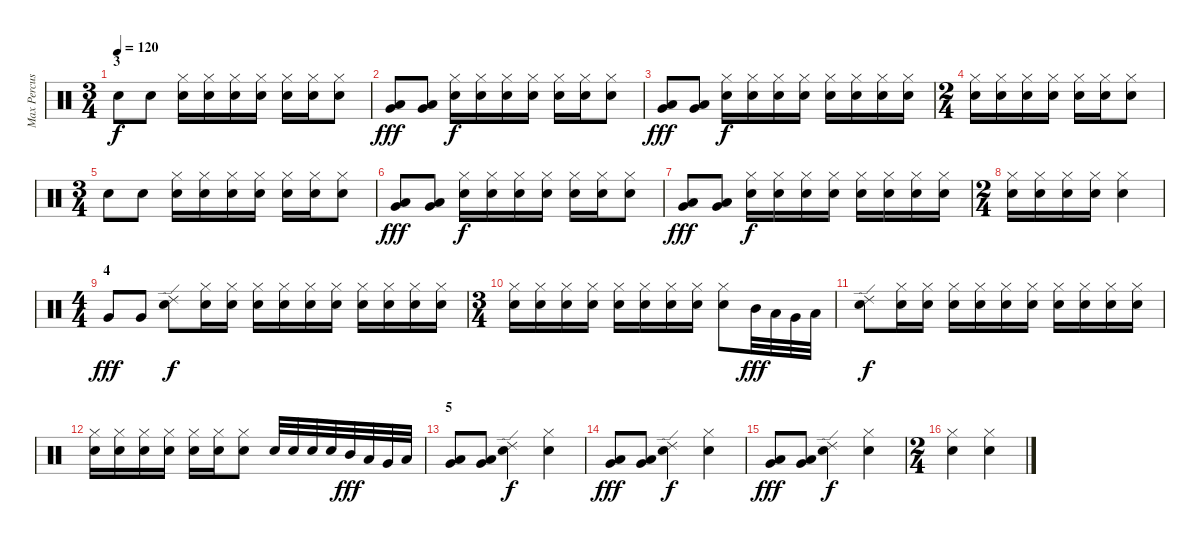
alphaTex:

\track ("Max Percussion" "Max Percus") {instrument percussion}
\staff {score}
\articulation defaults
\ts (3 4)
\section ("" "3")
\tempo 120
\clef neutral
\ks c "Snare (hit) 2".8{dy f} "Snare (hit) 2".8
("Hi-Hat (closed)" "Snare (hit) 2").16 ("Hi-Hat (closed)" "Snare (hit) 2").16 ("Hi-Hat (closed)" "Snare (hit) 2").16 ("Hi-Hat (closed)" "Snare (hit) 2").16 ("Hi-Hat (closed)" "Snare (hit) 2").16 ("Hi-Hat (closed)" "Snare (hit) 2").16 ("Hi-Hat (closed)" "Snare (hit) 2").8 |
("Low Tom (hit)" "Very Low Tom (hit)").8{dy fff} ("Low Tom (hit)" "Very Low Tom (hit)").8 ("Hi-Hat (closed)" "Snare (hit) 2").16{dy f} ("Hi-Hat (closed)" "Snare (hit) 2").16 ("Hi-Hat (closed)" "Snare (hit) 2").16 ("Hi-Hat (closed)" "Snare (hit) 2").16 ("Hi-Hat (closed)" "Snare (hit) 2").16 ("Hi-Hat (closed)" "Snare (hit) 2").16 ("Hi-Hat (closed)" "Snare (hit) 2").8 |
("Very Low Tom (hit)" "Low Floor Tom (hit)").8{dy fff} ("Very Low Tom (hit)" "Low Floor Tom (hit)").8 ("Hi-Hat (closed)" "Snare (hit) 2").16{dy f} ("Hi-Hat (closed)" "Snare (hit) 2").16 ("Hi-Hat (closed)" "Snare (hit) 2").16 ("Hi-Hat (closed)" "Snare (hit) 2").16 ("Hi-Hat (closed)" "Snare (hit) 2").16 ("Hi-Hat (closed)" "Snare (hit) 2").16 ("Hi-Hat (closed)" "Snare (hit) 2").16 ("Hi-Hat (closed)" "Snare (hit) 2").16 |
\ts (2 4)
("Hi-Hat (closed)" "Snare (hit) 2").16 ("Hi-Hat (closed)" "Snare (hit) 2").16 ("Hi-Hat (closed)" "Snare (hit) 2").16 ("Hi-Hat (closed)" "Snare (hit) 2").16 ("Hi-Hat (closed)" "Snare (hit) 2").16 ("Hi-Hat (closed)" "Snare (hit) 2").16 ("Hi-Hat (closed)" "Snare (hit) 2").8 |
\ts (3 4)
"Snare (hit) 2".8 "Snare (hit) 2".8 ("Hi-Hat (closed)" "Snare (hit) 2").16 ("Hi-Hat (closed)" "Snare (hit) 2").16 ("Hi-Hat (closed)" "Snare (hit) 2").16 ("Hi-Hat (closed)" "Snare (hit) 2").16 ("Hi-Hat (closed)" "Snare (hit) 2").16 ("Hi-Hat (closed)" "Snare (hit) 2").16 ("Hi-Hat (closed)" "Snare (hit) 2").8 |
("Low Tom (hit)" "Very Low Tom (hit)").8{dy fff} ("Low Tom (hit)" "Very Low Tom (hit)").8 ("Hi-Hat (closed)" "Snare (hit) 2").16{dy f} ("Hi-Hat (closed)" "Snare (hit) 2").16 ("Hi-Hat (closed)" "Snare (hit) 2").16 ("Hi-Hat (closed)" "Snare (hit) 2").16 ("Hi-Hat (closed)" "Snare (hit) 2").16 ("Hi-Hat (closed)" "Snare (hit) 2").16 ("Hi-Hat (closed)" "Snare (hit) 2").8 |
("Very Low Tom (hit)" "Low Floor Tom (hit)").8{dy fff} ("Very Low Tom (hit)" "Low Floor Tom (hit)").8 ("Hi-Hat (closed)" "Snare (hit) 2").16{dy f} ("Hi-Hat (closed)" "Snare (hit) 2").16 ("Hi-Hat (closed)" "Snare (hit) 2").16 ("Hi-Hat (closed)" "Snare (hit) 2").16 ("Hi-Hat (closed)" "Snare (hit) 2").16 ("Hi-Hat (closed)" "Snare (hit) 2").16 ("Hi-Hat (closed)" "Snare (hit) 2").16 ("Hi-Hat (closed)" "Snare (hit) 2").16 |
\ts (2 4)
("Hi-Hat (closed)" "Snare (hit) 2").16 ("Hi-Hat (closed)" "Snare (hit) 2").16 ("Hi-Hat (closed)" "Snare (hit) 2").16 ("Hi-Hat (closed)" "Snare (hit) 2").16 ("Hi-Hat (closed)" "Snare (hit) 2").4 |
\ts (4 4)
\section ("" "4")
"Very Low Tom (hit)".8{dy fff} "Very Low Tom (hit)".8 ("Ride (edge) 2" "Snare (hit) 2").8{dy f} ("Hi-Hat (closed)" "Snare (hit) 2").16 ("Hi-Hat (closed)" "Snare (hit) 2").16 ("Hi-Hat (closed)" "Snare (hit) 2").16 ("Hi-Hat (closed)" "Snare (hit) 2").16 ("Hi-Hat (closed)" "Snare (hit) 2").16 ("Hi-Hat (closed)" "Snare (hit) 2").16 ("Hi-Hat (closed)" "Snare (hit) 2").16 ("Hi-Hat (closed)" "Snare (hit) 2").16 ("Hi-Hat (closed)" "Snare (hit) 2").16 ("Hi-Hat (closed)" "Snare (hit) 2").16 |
\ts (3 4)
("Hi-Hat (closed)" "Snare (hit) 2").16 ("Hi-Hat (closed)" "Snare (hit) 2").16 ("Hi-Hat (closed)" "Snare (hit) 2").16 ("Hi-Hat (closed)" "Snare (hit) 2").16 ("Hi-Hat (closed)" "Snare (hit) 2").16 ("Hi-Hat (closed)" "Snare (hit) 2").16 ("Hi-Hat (closed)" "Snare (hit) 2").16 ("Hi-Hat (closed)" "Snare (hit) 2").16 ("Hi-Hat (closed)" "Snare (hit) 2").8 "Mid Tom (hit)".32{dy fff} "Low Tom (hit)".32 "Very Low Tom (hit)".32 "Low Floor Tom (hit)".32 |
("Ride (edge) 2" "Snare (hit) 2").8{dy f} ("Hi-Hat (closed)" "Snare (hit) 2").16 ("Hi-Hat (closed)" "Snare (hit) 2").16 ("Hi-Hat (closed)" "Snare (hit) 2").16 ("Hi-Hat (closed)" "Snare (hit) 2").16 ("Hi-Hat (closed)" "Snare (hit) 2").16 ("Hi-Hat (closed)" "Snare (hit) 2").16 ("Hi-Hat (closed)" "Snare (hit) 2").16 ("Hi-Hat (closed)" "Snare (hit) 2").16 ("Hi-Hat (closed)" "Snare (hit) 2").16 ("Hi-Hat (closed)" "Snare (hit) 2").16 |
("Hi-Hat (closed)" "Snare (hit) 2").16 ("Hi-Hat (closed)" "Snare (hit) 2").16 ("Hi-Hat (closed)" "Snare (hit) 2").16 ("Hi-Hat (closed)" "Snare (hit) 2").16 ("Hi-Hat (closed)" "Snare (hit) 2").16 ("Hi-Hat (closed)" "Snare (hit) 2").16 ("Hi-Hat (closed)" "Snare (hit) 2").8 "Snare (hit) 2".32 "Snare (hit) 2".32 "Snare (hit) 2".32 "Snare (hit) 2".32 "Mid Tom (hit)".32{dy fff} "Low Tom (hit)".32 "Very Low Tom (hit)".32 "Low Floor Tom (hit)".32 |
\section ("" "5")
("Low Floor Tom (hit)" "Very Low Tom (hit)").8 ("Low Floor Tom (hit)" "Very Low Tom (hit)").8 ("Ride (edge) 2" "Snare (hit) 2").4{dy f} ("Hi-Hat (closed)" "Snare (hit) 2").4 |
("Low Floor Tom (hit)" "Very Low Tom (hit)").8{dy fff} ("Low Floor Tom (hit)" "Very Low Tom (hit)").8 ("Ride (edge) 2" "Snare (hit) 2").4{dy f} ("Hi-Hat (closed)" "Snare (hit) 2").4 |
("Low Floor Tom (hit)" "Very Low Tom (hit)").8{dy fff} ("Low Floor Tom (hit)" "Very Low Tom (hit)").8 ("Ride (edge) 2" "Snare (hit) 2").4{dy f} ("Hi-Hat (closed)" "Snare (hit) 2").4 |
\ts (2 4)
("Hi-Hat (closed)" "Snare (hit) 2").4 ("Hi-Hat (closed)" "Snare (hit) 2").4
